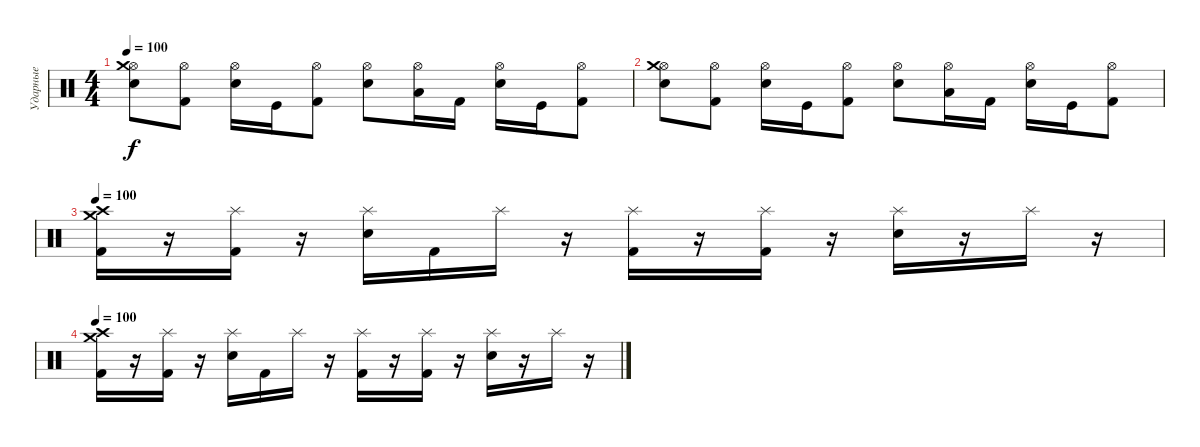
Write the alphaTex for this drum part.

\track ("Ударные" "Ударные") {instrument percussion}
\staff {score}
\articulation defaults
\ts (4 4)
\tempo 100
\clef neutral
\ks c
("Hi-Hat (open)" "Snare (hit) 2" "Crash medium (hit)").8{dy f} ("Hi-Hat (open)" "Kick (hit) 2").8 ("Hi-Hat (open)" "Electric Snare (hit)").16 "Kick (hit)".16 ("Hi-Hat (open)" "Kick (hit) 2").8 ("Hi-Hat (open)" "Snare (hit) 2").8 ("Hi-Hat (open)" "Low Tom (hit)").16 "Kick (hit) 2".16 ("Hi-Hat (open)" "Electric Snare (hit)").16 "Kick (hit)".16 ("Hi-Hat (open)" "Kick (hit) 2").8 |
("Hi-Hat (open)" "Snare (hit) 2" "Crash medium (hit)").8 ("Hi-Hat (open)" "Kick (hit) 2").8 ("Hi-Hat (open)" "Electric Snare (hit)").16 "Kick (hit)".16 ("Hi-Hat (open)" "Kick (hit) 2").8 ("Hi-Hat (open)" "Snare (hit) 2").8 ("Hi-Hat (open)" "Low Tom (hit)").16 "Kick (hit) 2".16 ("Hi-Hat (open)" "Electric Snare (hit)").16 "Kick (hit)".16 ("Hi-Hat (open)" "Kick (hit) 2").8 |
\tempo 100
("Crash high (hit)" "Kick (hit) 2" "Crash medium (hit)").16 r.16 ("Splash (hit)" "Kick (hit) 2").16 r.16 ("Splash (hit)" "Electric Snare (hit)").16 "Kick (hit) 2".16 "Splash (hit)".16 r.16 ("Splash (hit)" "Kick (hit) 2").16 r.16 ("Splash (hit)" "Kick (hit) 2").16 r.16 ("Splash (hit)" "Electric Snare (hit)").16 r.16 "Splash (hit)".16 r.16 |
\tempo 100
("Crash high (hit)" "Kick (hit) 2" "Crash medium (hit)").16 r.16 ("Splash (hit)" "Kick (hit) 2").16 r.16 ("Splash (hit)" "Electric Snare (hit)").16 "Kick (hit) 2".16 "Splash (hit)".16 r.16 ("Splash (hit)" "Kick (hit) 2").16 r.16 ("Splash (hit)" "Kick (hit) 2").16 r.16 ("Splash (hit)" "Electric Snare (hit)").16 r.16 "Splash (hit)".16 r.16
